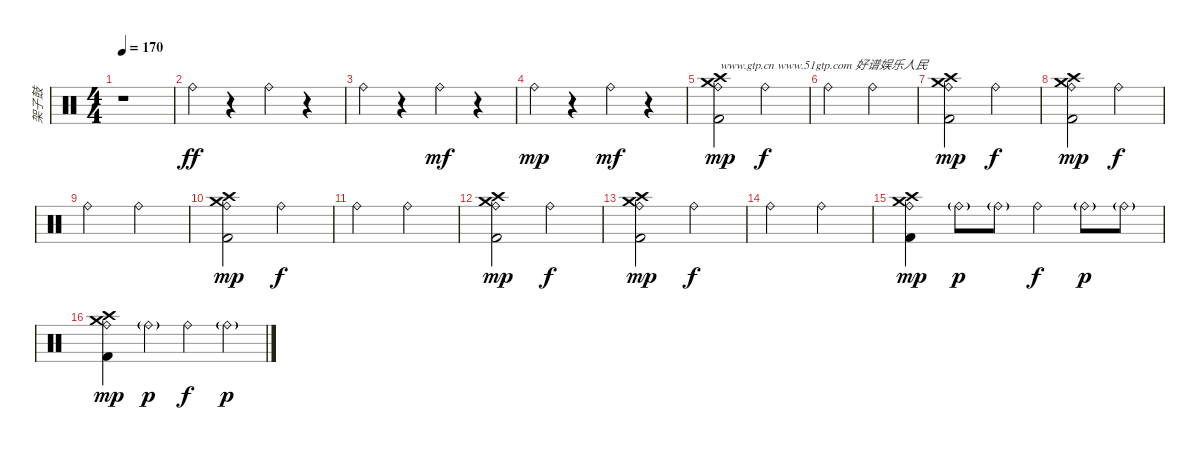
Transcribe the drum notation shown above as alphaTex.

\track ("架子鼓" "架子鼓") {instrument percussion}
\staff {score}
\articulation defaults
\ts (4 4)
\tempo 170
\clef neutral
\ks c
r.1{dy ff} |
"Ride (bell)".4 r.4 "Ride (bell)".4 r.4 |
"Ride (bell)".4 r.4 "Ride (bell)".4{dy mf} r.4 |
"Ride (bell)".4{dy mp} r.4 "Ride (bell)".4{dy mf} r.4 |
("Ride (bell)" "Kick (hit) 2" "Crash medium (hit)" "Crash high (hit)").2{txt "www.gtp.cn www.51gtp.com 好谱娱乐人民" dy mp} "Ride (bell)".2{dy f} |
"Ride (bell)".2 "Ride (bell)".2 |
("Ride (bell)" "Kick (hit) 2" "Crash medium (hit)" "Crash high (hit)").2{dy mp} "Ride (bell)".2{dy f} |
("Ride (bell)" "Kick (hit) 2" "Crash medium (hit)" "Crash high (hit)").2{dy mp} "Ride (bell)".2{dy f} |
"Ride (bell)".2 "Ride (bell)".2 |
("Ride (bell)" "Kick (hit) 2" "Crash medium (hit)" "Crash high (hit)").2{dy mp} "Ride (bell)".2{dy f} |
"Ride (bell)".2 "Ride (bell)".2 |
("Ride (bell)" "Kick (hit) 2" "Crash medium (hit)" "Crash high (hit)").2{dy mp} "Ride (bell)".2{dy f} |
("Ride (bell)" "Kick (hit) 2" "Crash medium (hit)" "Crash high (hit)").2{dy mp} "Ride (bell)".2{dy f} |
"Ride (bell)".2 "Ride (bell)".2 |
("Ride (bell)" "Kick (hit) 2" "Crash medium (hit)" "Crash high (hit)").4{dy mp} "Ride (bell)"{g}.8{dy p} "Ride (bell)"{g}.8 "Ride (bell)".4{dy f} "Ride (bell)"{g}.8{dy p} "Ride (bell)"{g}.8 |
("Ride (bell)" "Kick (hit) 2" "Crash medium (hit)" "Crash high (hit)").4{dy mp} "Ride (bell)"{g}.4{dy p} "Ride (bell)".4{dy f} "Ride (bell)"{g}.4{dy p}
